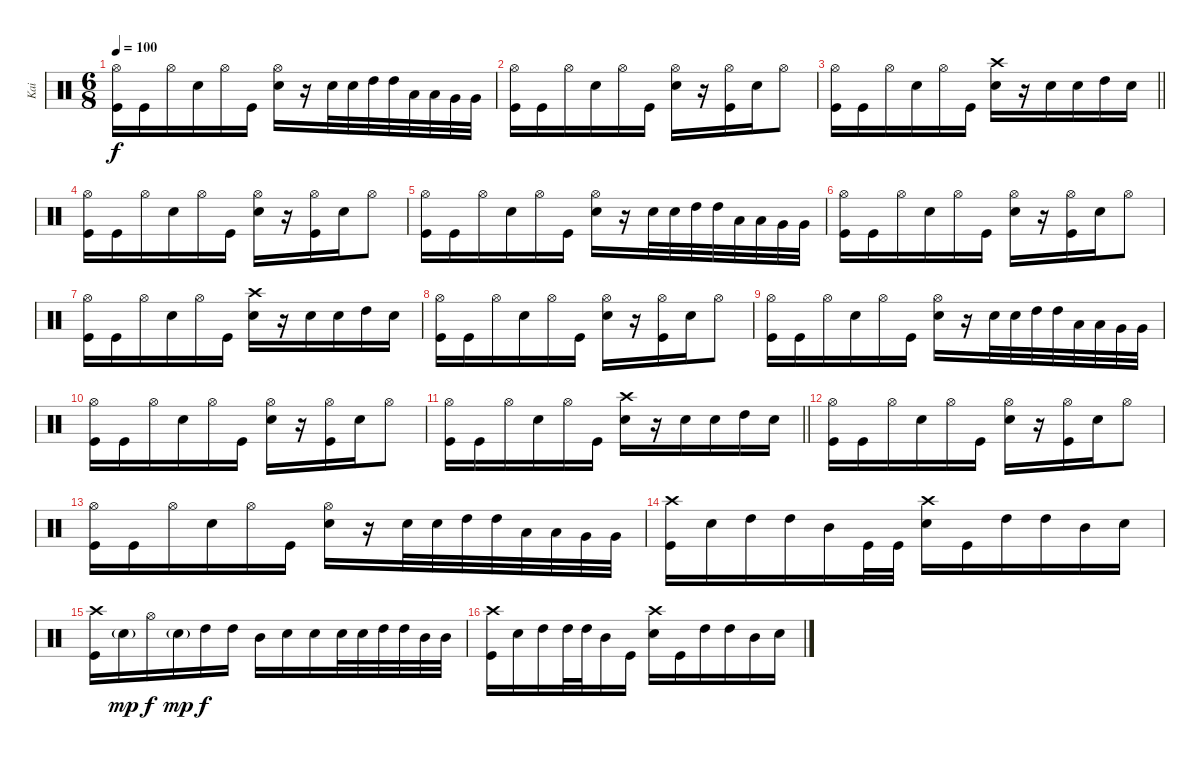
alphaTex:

\track ("Kai" "Kai") {instrument percussion}
\staff {score}
\articulation defaults
\ts (6 8)
\tempo 100
\clef neutral
\ks c
("Hi-Hat (open)" "Kick (hit)").16{dy f} "Kick (hit)".16 "Hi-Hat (open)".16 "Snare (hit) 2".16 "Hi-Hat (open)".16 "Kick (hit)".16 ("Hi-Hat (open)" "Snare (hit) 2").16 r.16 "Snare (hit) 2".32 "Snare (hit) 2".32 "High Tom (hit)".32 "High Tom (hit)".32 "Low Tom (hit)".32 "Low Tom (hit)".32 "Very Low Tom (hit)".32 "Very Low Tom (hit)".32 |
("Hi-Hat (open)" "Kick (hit)").16 "Kick (hit)".16 "Hi-Hat (open)".16 "Snare (hit) 2".16 "Hi-Hat (open)".16 "Kick (hit)".16 ("Hi-Hat (open)" "Snare (hit) 2").16 r.16 ("Hi-Hat (open)" "Kick (hit)").16 "Snare (hit) 2".16 "Hi-Hat (open)".8 |
\barLineRight lightlight
("Hi-Hat (open)" "Kick (hit)").16 "Kick (hit)".16 "Hi-Hat (open)".16 "Snare (hit) 2".16 "Hi-Hat (open)".16 "Kick (hit)".16 ("Crash high (hit)" "Snare (hit) 2").16 r.16 "Snare (hit) 2".16 "Snare (hit) 2".16 "High Tom (hit)".16 "Snare (hit) 2".16 |
("Hi-Hat (open)" "Kick (hit)").16 "Kick (hit)".16 "Hi-Hat (open)".16 "Snare (hit) 2".16 "Hi-Hat (open)".16 "Kick (hit)".16 ("Hi-Hat (open)" "Snare (hit) 2").16 r.16 ("Hi-Hat (open)" "Kick (hit)").16 "Snare (hit) 2".16 "Hi-Hat (open)".8 |
("Hi-Hat (open)" "Kick (hit)").16 "Kick (hit)".16 "Hi-Hat (open)".16 "Snare (hit) 2".16 "Hi-Hat (open)".16 "Kick (hit)".16 ("Hi-Hat (open)" "Snare (hit) 2").16 r.16 "Snare (hit) 2".32 "Snare (hit) 2".32 "High Tom (hit)".32 "High Tom (hit)".32 "Low Tom (hit)".32 "Low Tom (hit)".32 "Very Low Tom (hit)".32 "Very Low Tom (hit)".32 |
("Hi-Hat (open)" "Kick (hit)").16 "Kick (hit)".16 "Hi-Hat (open)".16 "Snare (hit) 2".16 "Hi-Hat (open)".16 "Kick (hit)".16 ("Hi-Hat (open)" "Snare (hit) 2").16 r.16 ("Hi-Hat (open)" "Kick (hit)").16 "Snare (hit) 2".16 "Hi-Hat (open)".8 |
("Hi-Hat (open)" "Kick (hit)").16 "Kick (hit)".16 "Hi-Hat (open)".16 "Snare (hit) 2".16 "Hi-Hat (open)".16 "Kick (hit)".16 ("Crash high (hit)" "Snare (hit) 2").16 r.16 "Snare (hit) 2".16 "Snare (hit) 2".16 "High Tom (hit)".16 "Snare (hit) 2".16 |
("Hi-Hat (open)" "Kick (hit)").16 "Kick (hit)".16 "Hi-Hat (open)".16 "Snare (hit) 2".16 "Hi-Hat (open)".16 "Kick (hit)".16 ("Hi-Hat (open)" "Snare (hit) 2").16 r.16 ("Hi-Hat (open)" "Kick (hit)").16 "Snare (hit) 2".16 "Hi-Hat (open)".8 |
("Hi-Hat (open)" "Kick (hit)").16 "Kick (hit)".16 "Hi-Hat (open)".16 "Snare (hit) 2".16 "Hi-Hat (open)".16 "Kick (hit)".16 ("Hi-Hat (open)" "Snare (hit) 2").16 r.16 "Snare (hit) 2".32 "Snare (hit) 2".32 "High Tom (hit)".32 "High Tom (hit)".32 "Low Tom (hit)".32 "Low Tom (hit)".32 "Very Low Tom (hit)".32 "Very Low Tom (hit)".32 |
("Hi-Hat (open)" "Kick (hit)").16 "Kick (hit)".16 "Hi-Hat (open)".16 "Snare (hit) 2".16 "Hi-Hat (open)".16 "Kick (hit)".16 ("Hi-Hat (open)" "Snare (hit) 2").16 r.16 ("Hi-Hat (open)" "Kick (hit)").16 "Snare (hit) 2".16 "Hi-Hat (open)".8 |
\barLineRight lightlight
("Hi-Hat (open)" "Kick (hit)").16 "Kick (hit)".16 "Hi-Hat (open)".16 "Snare (hit) 2".16 "Hi-Hat (open)".16 "Kick (hit)".16 ("Crash high (hit)" "Snare (hit) 2").16 r.16 "Snare (hit) 2".16 "Snare (hit) 2".16 "High Tom (hit)".16 "Snare (hit) 2".16 |
("Hi-Hat (open)" "Kick (hit)").16 "Kick (hit)".16 "Hi-Hat (open)".16 "Snare (hit) 2".16 "Hi-Hat (open)".16 "Kick (hit)".16 ("Hi-Hat (open)" "Snare (hit) 2").16 r.16 ("Hi-Hat (open)" "Kick (hit)").16 "Snare (hit) 2".16 "Hi-Hat (open)".8 |
("Hi-Hat (open)" "Kick (hit)").16 "Kick (hit)".16 "Hi-Hat (open)".16 "Snare (hit) 2".16 "Hi-Hat (open)".16 "Kick (hit)".16 ("Hi-Hat (open)" "Snare (hit) 2").16 r.16 "Snare (hit) 2".32 "Snare (hit) 2".32 "High Tom (hit)".32 "High Tom (hit)".32 "Low Tom (hit)".32 "Low Tom (hit)".32 "Very Low Tom (hit)".32 "Very Low Tom (hit)".32 |
("Crash high (hit)" "Kick (hit)").16 "Snare (hit) 2".16 "High Tom (hit)".16 "High Tom (hit)".16 "Mid Tom (hit)".16 "Kick (hit)".32 "Kick (hit)".32 ("Crash high (hit)" "Snare (hit) 2").16 "Kick (hit)".16 "High Tom (hit)".16 "High Tom (hit)".16 "Mid Tom (hit)".16 "Snare (hit) 2".16 |
("Crash high (hit)" "Kick (hit)").16 "Snare (hit) 2"{g}.16{dy mp} "Hi-Hat (open)".16{dy f} "Snare (hit) 2"{g}.16{dy mp} "High Tom (hit)".16{dy f} "High Tom (hit)".16 "Mid Tom (hit)".16 "Snare (hit) 2".16 "Snare (hit) 2".16 "Snare (hit) 2".32 "Snare (hit) 2".32 "High Tom (hit)".32 "High Tom (hit)".32 "Mid Tom (hit)".32 "Mid Tom (hit)".32 |
("Crash high (hit)" "Kick (hit)").16 "Snare (hit) 2".16 "High Tom (hit)".16 "High Tom (hit)".32 "High Tom (hit)".32 "Mid Tom (hit)".16 "Kick (hit)".16 ("Crash high (hit)" "Snare (hit) 2").16 "Kick (hit)".16 "High Tom (hit)".16 "High Tom (hit)".16 "Mid Tom (hit)".16 "Snare (hit) 2".16
